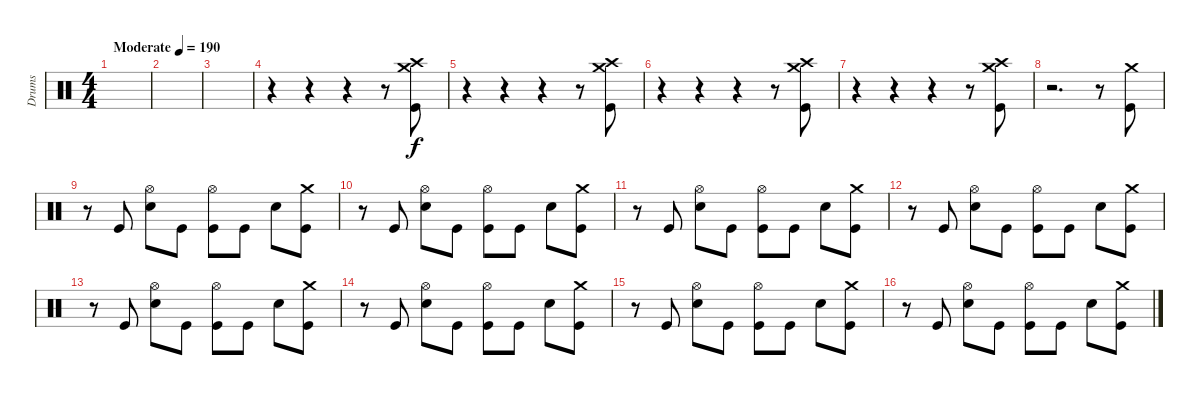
\track ("Drums" "Drums") {instrument percussion}
\staff {score}
\articulation defaults
\ts (4 4)
\tempo (190 "Moderate")
\clef neutral
\ks c
|
|
|
r.4 r.4 r.4 r.8 ("Crash medium (hit)" "Crash high (hit)" "Kick (hit)").8 |
r.4 r.4 r.4 r.8 ("Crash medium (hit)" "Crash high (hit)" "Kick (hit)").8 |
r.4 r.4 r.4 r.8 ("Crash medium (hit)" "Crash high (hit)" "Kick (hit)").8 |
r.4 r.4 r.4 r.8 ("Crash medium (hit)" "Crash high (hit)" "Kick (hit)").8 |
r.2{d} r.8 ("Crash medium (hit)" "Kick (hit)").8 |
r.8 "Kick (hit)".8 ("Hi-Hat (open)" "Snare (hit) 2").8 "Kick (hit)".8 ("Hi-Hat (open)" "Kick (hit)").8 "Kick (hit)".8 "Snare (hit) 2".8 ("Crash medium (hit)" "Kick (hit)").8 |
r.8 "Kick (hit)".8 ("Hi-Hat (open)" "Snare (hit) 2").8 "Kick (hit)".8 ("Hi-Hat (open)" "Kick (hit)").8 "Kick (hit)".8 "Snare (hit) 2".8 ("Crash medium (hit)" "Kick (hit)").8 |
r.8 "Kick (hit)".8 ("Hi-Hat (open)" "Snare (hit) 2").8 "Kick (hit)".8 ("Hi-Hat (open)" "Kick (hit)").8 "Kick (hit)".8 "Snare (hit) 2".8 ("Crash medium (hit)" "Kick (hit)").8 |
r.8 "Kick (hit)".8 ("Hi-Hat (open)" "Snare (hit) 2").8 "Kick (hit)".8 ("Hi-Hat (open)" "Kick (hit)").8 "Kick (hit)".8 "Snare (hit) 2".8 ("Crash medium (hit)" "Kick (hit)").8 |
r.8 "Kick (hit)".8 ("Hi-Hat (open)" "Snare (hit) 2").8 "Kick (hit)".8 ("Hi-Hat (open)" "Kick (hit)").8 "Kick (hit)".8 "Snare (hit) 2".8 ("Crash medium (hit)" "Kick (hit)").8 |
r.8 "Kick (hit)".8 ("Hi-Hat (open)" "Snare (hit) 2").8 "Kick (hit)".8 ("Hi-Hat (open)" "Kick (hit)").8 "Kick (hit)".8 "Snare (hit) 2".8 ("Crash medium (hit)" "Kick (hit)").8 |
r.8 "Kick (hit)".8 ("Hi-Hat (open)" "Snare (hit) 2").8 "Kick (hit)".8 ("Hi-Hat (open)" "Kick (hit)").8 "Kick (hit)".8 "Snare (hit) 2".8 ("Crash medium (hit)" "Kick (hit)").8 |
r.8 "Kick (hit)".8 ("Hi-Hat (open)" "Snare (hit) 2").8 "Kick (hit)".8 ("Hi-Hat (open)" "Kick (hit)").8 "Kick (hit)".8 "Snare (hit) 2".8 ("Crash medium (hit)" "Kick (hit)").8
